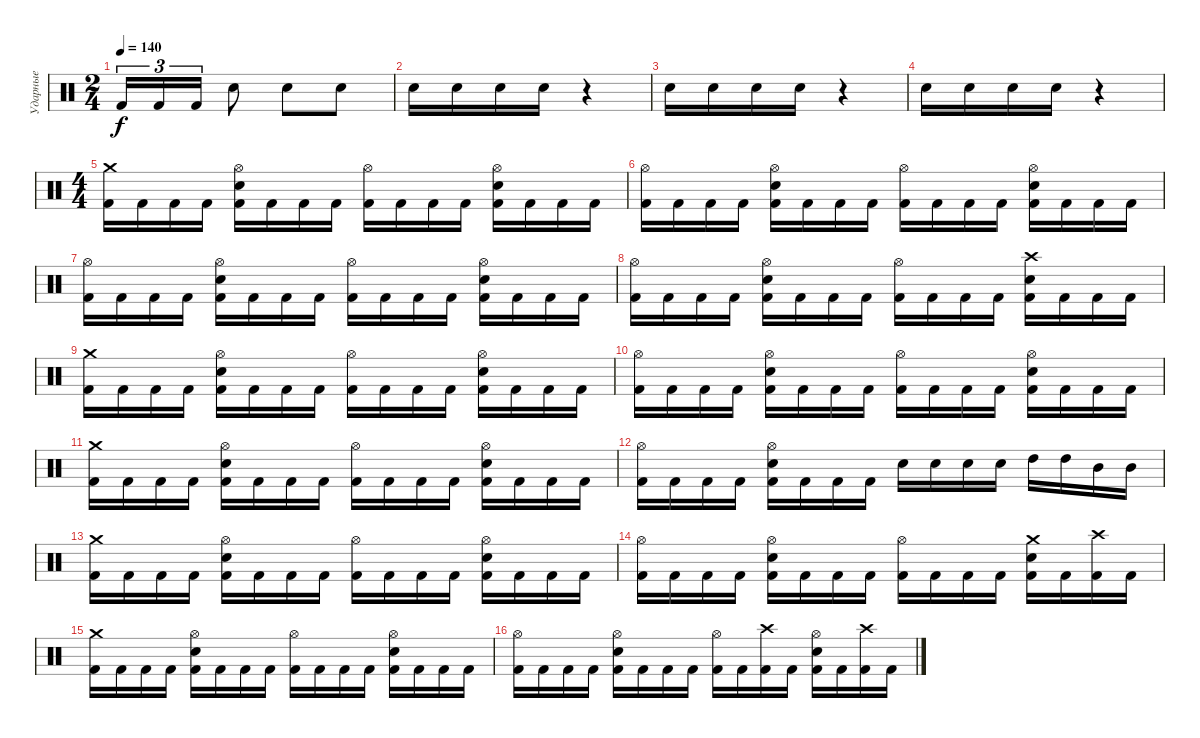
\track ("Ударные" "Ударные") {instrument percussion}
\staff {score}
\articulation defaults
\ts (2 4)
\tempo 140
\clef neutral
\ks c "Kick (hit) 2".16{tu (3 2) dy f} "Kick (hit) 2".16{tu (3 2)} "Kick (hit) 2".16{tu (3 2)} "Electric Snare (hit)".8 "Electric Snare (hit)".8 "Electric Snare (hit)".8
|
"Electric Snare (hit)".16 "Electric Snare (hit)".16 "Electric Snare (hit)".16 "Electric Snare (hit)".16 r.4 |
"Electric Snare (hit)".16 "Electric Snare (hit)".16 "Electric Snare (hit)".16 "Electric Snare (hit)".16 r.4 |
"Electric Snare (hit)".16 "Electric Snare (hit)".16 "Electric Snare (hit)".16 "Electric Snare (hit)".16 r.4 |
\ts (4 4)
("Crash medium (hit)" "Kick (hit) 2").16 "Kick (hit) 2".16 "Kick (hit) 2".16 "Kick (hit) 2".16 ("Hi-Hat (open)" "Electric Snare (hit)" "Kick (hit) 2").16 "Kick (hit) 2".16 "Kick (hit) 2".16 "Kick (hit) 2".16 ("Hi-Hat (open)" "Kick (hit) 2").16 "Kick (hit) 2".16 "Kick (hit) 2".16 "Kick (hit) 2".16 ("Hi-Hat (open)" "Electric Snare (hit)" "Kick (hit) 2").16 "Kick (hit) 2".16 "Kick (hit) 2".16 "Kick (hit) 2".16 |
("Hi-Hat (open)" "Kick (hit) 2").16 "Kick (hit) 2".16 "Kick (hit) 2".16 "Kick (hit) 2".16 ("Hi-Hat (open)" "Electric Snare (hit)" "Kick (hit) 2").16 "Kick (hit) 2".16 "Kick (hit) 2".16 "Kick (hit) 2".16 ("Hi-Hat (open)" "Kick (hit) 2").16 "Kick (hit) 2".16 "Kick (hit) 2".16 "Kick (hit) 2".16 ("Hi-Hat (open)" "Electric Snare (hit)" "Kick (hit) 2").16 "Kick (hit) 2".16 "Kick (hit) 2".16 "Kick (hit) 2".16 |
("Hi-Hat (open)" "Kick (hit) 2").16 "Kick (hit) 2".16 "Kick (hit) 2".16 "Kick (hit) 2".16 ("Hi-Hat (open)" "Electric Snare (hit)" "Kick (hit) 2").16 "Kick (hit) 2".16 "Kick (hit) 2".16 "Kick (hit) 2".16 ("Hi-Hat (open)" "Kick (hit) 2").16 "Kick (hit) 2".16 "Kick (hit) 2".16 "Kick (hit) 2".16 ("Hi-Hat (open)" "Electric Snare (hit)" "Kick (hit) 2").16 "Kick (hit) 2".16 "Kick (hit) 2".16 "Kick (hit) 2".16 |
("Hi-Hat (open)" "Kick (hit) 2").16 "Kick (hit) 2".16 "Kick (hit) 2".16 "Kick (hit) 2".16 ("Hi-Hat (open)" "Electric Snare (hit)" "Kick (hit) 2").16 "Kick (hit) 2".16 "Kick (hit) 2".16 "Kick (hit) 2".16 ("Hi-Hat (open)" "Kick (hit) 2").16 "Kick (hit) 2".16 "Kick (hit) 2".16 "Kick (hit) 2".16 ("Crash high (hit)" "Electric Snare (hit)" "Kick (hit) 2").16 "Kick (hit) 2".16 "Kick (hit) 2".16 "Kick (hit) 2".16 |
("Crash medium (hit)" "Kick (hit) 2").16 "Kick (hit) 2".16 "Kick (hit) 2".16 "Kick (hit) 2".16 ("Hi-Hat (open)" "Electric Snare (hit)" "Kick (hit) 2").16 "Kick (hit) 2".16 "Kick (hit) 2".16 "Kick (hit) 2".16 ("Hi-Hat (open)" "Kick (hit) 2").16 "Kick (hit) 2".16 "Kick (hit) 2".16 "Kick (hit) 2".16 ("Hi-Hat (open)" "Electric Snare (hit)" "Kick (hit) 2").16 "Kick (hit) 2".16 "Kick (hit) 2".16 "Kick (hit) 2".16 |
("Hi-Hat (open)" "Kick (hit) 2").16 "Kick (hit) 2".16 "Kick (hit) 2".16 "Kick (hit) 2".16 ("Hi-Hat (open)" "Electric Snare (hit)" "Kick (hit) 2").16 "Kick (hit) 2".16 "Kick (hit) 2".16 "Kick (hit) 2".16 ("Hi-Hat (open)" "Kick (hit) 2").16 "Kick (hit) 2".16 "Kick (hit) 2".16 "Kick (hit) 2".16 ("Hi-Hat (open)" "Electric Snare (hit)" "Kick (hit) 2").16 "Kick (hit) 2".16 "Kick (hit) 2".16 "Kick (hit) 2".16 |
("Crash medium (hit)" "Kick (hit) 2").16 "Kick (hit) 2".16 "Kick (hit) 2".16 "Kick (hit) 2".16 ("Hi-Hat (open)" "Electric Snare (hit)" "Kick (hit) 2").16 "Kick (hit) 2".16 "Kick (hit) 2".16 "Kick (hit) 2".16 ("Hi-Hat (open)" "Kick (hit) 2").16 "Kick (hit) 2".16 "Kick (hit) 2".16 "Kick (hit) 2".16 ("Hi-Hat (open)" "Electric Snare (hit)" "Kick (hit) 2").16 "Kick (hit) 2".16 "Kick (hit) 2".16 "Kick (hit) 2".16 |
("Hi-Hat (open)" "Kick (hit) 2").16 "Kick (hit) 2".16 "Kick (hit) 2".16 "Kick (hit) 2".16 ("Hi-Hat (open)" "Electric Snare (hit)" "Kick (hit) 2").16 "Kick (hit) 2".16 "Kick (hit) 2".16 "Kick (hit) 2".16 "Electric Snare (hit)".16 "Electric Snare (hit)".16 "Electric Snare (hit)".16 "Electric Snare (hit)".16 "High Tom (hit)".16 "High Tom (hit)".16 "Mid Tom (hit)".16 "Mid Tom (hit)".16 |
("Crash medium (hit)" "Kick (hit) 2").16 "Kick (hit) 2".16 "Kick (hit) 2".16 "Kick (hit) 2".16 ("Hi-Hat (open)" "Electric Snare (hit)" "Kick (hit) 2").16 "Kick (hit) 2".16 "Kick (hit) 2".16 "Kick (hit) 2".16 ("Hi-Hat (open)" "Kick (hit) 2").16 "Kick (hit) 2".16 "Kick (hit) 2".16 "Kick (hit) 2".16 ("Hi-Hat (open)" "Electric Snare (hit)" "Kick (hit) 2").16 "Kick (hit) 2".16 "Kick (hit) 2".16 "Kick (hit) 2".16 |
("Hi-Hat (open)" "Kick (hit) 2").16 "Kick (hit) 2".16 "Kick (hit) 2".16 "Kick (hit) 2".16 ("Hi-Hat (open)" "Electric Snare (hit)" "Kick (hit) 2").16 "Kick (hit) 2".16 "Kick (hit) 2".16 "Kick (hit) 2".16 ("Hi-Hat (open)" "Kick (hit) 2").16 "Kick (hit) 2".16 "Kick (hit) 2".16 "Kick (hit) 2".16 ("Crash medium (hit)" "Electric Snare (hit)" "Kick (hit) 2").16 "Kick (hit) 2".16 ("Crash high (hit)" "Kick (hit) 2").16 "Kick (hit) 2".16 |
("Crash medium (hit)" "Kick (hit) 2").16 "Kick (hit) 2".16 "Kick (hit) 2".16 "Kick (hit) 2".16 ("Hi-Hat (open)" "Electric Snare (hit)" "Kick (hit) 2").16 "Kick (hit) 2".16 "Kick (hit) 2".16 "Kick (hit) 2".16 ("Hi-Hat (open)" "Kick (hit) 2").16 "Kick (hit) 2".16 "Kick (hit) 2".16 "Kick (hit) 2".16 ("Hi-Hat (open)" "Electric Snare (hit)" "Kick (hit) 2").16 "Kick (hit) 2".16 "Kick (hit) 2".16 "Kick (hit) 2".16 |
("Hi-Hat (open)" "Kick (hit) 2").16 "Kick (hit) 2".16 "Kick (hit) 2".16 "Kick (hit) 2".16 ("Hi-Hat (open)" "Electric Snare (hit)" "Kick (hit) 2").16 "Kick (hit) 2".16 "Kick (hit) 2".16 "Kick (hit) 2".16 ("Hi-Hat (open)" "Kick (hit) 2").16 "Kick (hit) 2".16 ("Crash high (hit)" "Kick (hit) 2").16 "Kick (hit) 2".16 ("Hi-Hat (open)" "Electric Snare (hit)" "Kick (hit) 2").16 "Kick (hit) 2".16 ("Crash high (hit)" "Kick (hit) 2").16 "Kick (hit) 2".16
